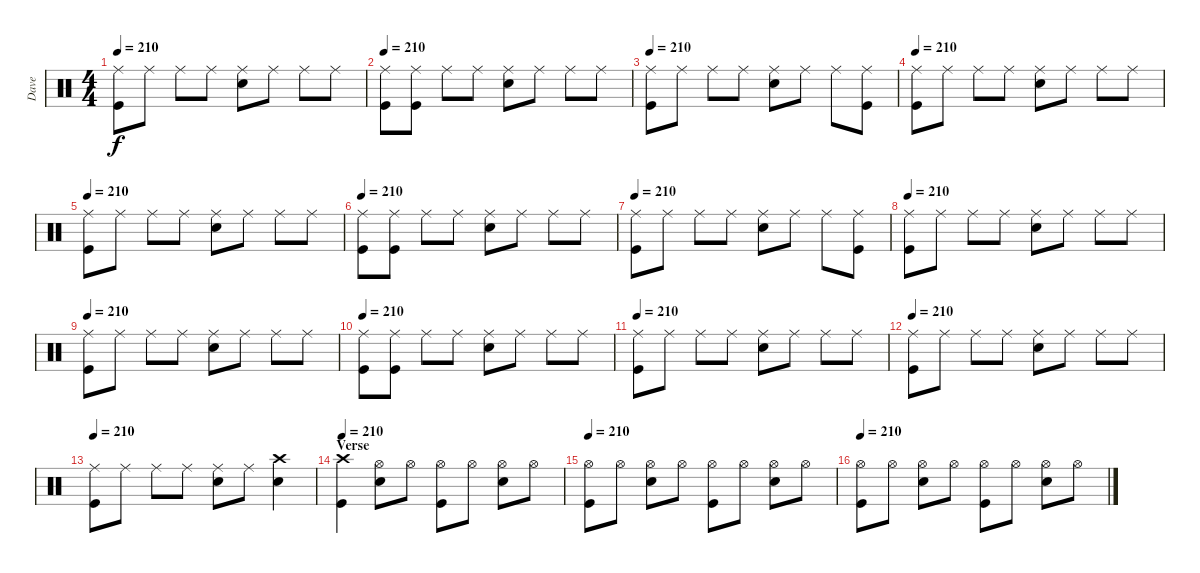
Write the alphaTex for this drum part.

\track ("Dave" "Dave") {instrument percussion}
\staff {score}
\articulation defaults
\ts (4 4)
\tempo 210
\clef neutral
\ks c
("Ride (middle)" "Kick (hit)").8{dy f} "Ride (middle)".8 "Ride (middle)".8 "Ride (middle)".8 ("Ride (middle)" "Snare (hit) 2").8 "Ride (middle)".8 "Ride (middle)".8 "Ride (middle)".8 |
\tempo 210
("Ride (middle)" "Kick (hit)").8 ("Ride (middle)" "Kick (hit)").8 "Ride (middle)".8 "Ride (middle)".8 ("Ride (middle)" "Snare (hit) 2").8 "Ride (middle)".8 "Ride (middle)".8 "Ride (middle)".8 |
\tempo 210
("Ride (middle)" "Kick (hit)").8 "Ride (middle)".8 "Ride (middle)".8 "Ride (middle)".8 ("Ride (middle)" "Snare (hit) 2").8 "Ride (middle)".8 "Ride (middle)".8 ("Ride (middle)" "Kick (hit)").8 |
\tempo 210
("Ride (middle)" "Kick (hit)").8 "Ride (middle)".8 "Ride (middle)".8 "Ride (middle)".8 ("Ride (middle)" "Snare (hit) 2").8 "Ride (middle)".8 "Ride (middle)".8 "Ride (middle)".8 |
\tempo 210
("Ride (middle)" "Kick (hit)").8 "Ride (middle)".8 "Ride (middle)".8 "Ride (middle)".8 ("Ride (middle)" "Snare (hit) 2").8 "Ride (middle)".8 "Ride (middle)".8 "Ride (middle)".8 |
\tempo 210
("Ride (middle)" "Kick (hit)").8 ("Ride (middle)" "Kick (hit)").8 "Ride (middle)".8 "Ride (middle)".8 ("Ride (middle)" "Snare (hit) 2").8 "Ride (middle)".8 "Ride (middle)".8 "Ride (middle)".8 |
\tempo 210
("Ride (middle)" "Kick (hit)").8 "Ride (middle)".8 "Ride (middle)".8 "Ride (middle)".8 ("Ride (middle)" "Snare (hit) 2").8 "Ride (middle)".8 "Ride (middle)".8 ("Ride (middle)" "Kick (hit)").8 |
\tempo 210
("Ride (middle)" "Kick (hit)").8 "Ride (middle)".8 "Ride (middle)".8 "Ride (middle)".8 ("Ride (middle)" "Snare (hit) 2").8 "Ride (middle)".8 "Ride (middle)".8 "Ride (middle)".8 |
\tempo 210
("Ride (middle)" "Kick (hit)").8 "Ride (middle)".8 "Ride (middle)".8 "Ride (middle)".8 ("Ride (middle)" "Snare (hit) 2").8 "Ride (middle)".8 "Ride (middle)".8 "Ride (middle)".8 |
\tempo 210
("Ride (middle)" "Kick (hit)").8 ("Ride (middle)" "Kick (hit)").8 "Ride (middle)".8 "Ride (middle)".8 ("Ride (middle)" "Snare (hit) 2").8 "Ride (middle)".8 "Ride (middle)".8 "Ride (middle)".8 |
\tempo 210
("Ride (middle)" "Kick (hit)").8 "Ride (middle)".8 "Ride (middle)".8 "Ride (middle)".8 ("Ride (middle)" "Snare (hit) 2").8 "Ride (middle)".8 "Ride (middle)".8 "Ride (middle)".8 |
\tempo 210
("Ride (middle)" "Kick (hit)").8 "Ride (middle)".8 "Ride (middle)".8 "Ride (middle)".8 ("Ride (middle)" "Snare (hit) 2").8 "Ride (middle)".8 "Ride (middle)".8 "Ride (middle)".8 |
\tempo 210
("Ride (middle)" "Kick (hit)").8 "Ride (middle)".8 "Ride (middle)".8 "Ride (middle)".8 ("Ride (middle)" "Snare (hit) 2").8 "Ride (middle)".8 ("Crash high (hit)" "Snare (hit) 2").4 |
\section ("" "Verse")
\tempo 210
("Crash high (hit)" "Kick (hit)").4 ("Hi-Hat (open)" "Snare (hit) 2").8 "Hi-Hat (open)".8 ("Hi-Hat (open)" "Kick (hit)").8 "Hi-Hat (open)".8 ("Hi-Hat (open)" "Snare (hit) 2").8 "Hi-Hat (open)".8 |
\tempo 210
("Hi-Hat (open)" "Kick (hit)").8 "Hi-Hat (open)".8 ("Hi-Hat (open)" "Snare (hit) 2").8 "Hi-Hat (open)".8 ("Hi-Hat (open)" "Kick (hit)").8 "Hi-Hat (open)".8 ("Hi-Hat (open)" "Snare (hit) 2").8 "Hi-Hat (open)".8 |
\tempo 210
("Hi-Hat (open)" "Kick (hit)").8 "Hi-Hat (open)".8 ("Hi-Hat (open)" "Snare (hit) 2").8 "Hi-Hat (open)".8 ("Hi-Hat (open)" "Kick (hit)").8 "Hi-Hat (open)".8 ("Hi-Hat (open)" "Snare (hit) 2").8 "Hi-Hat (open)".8
